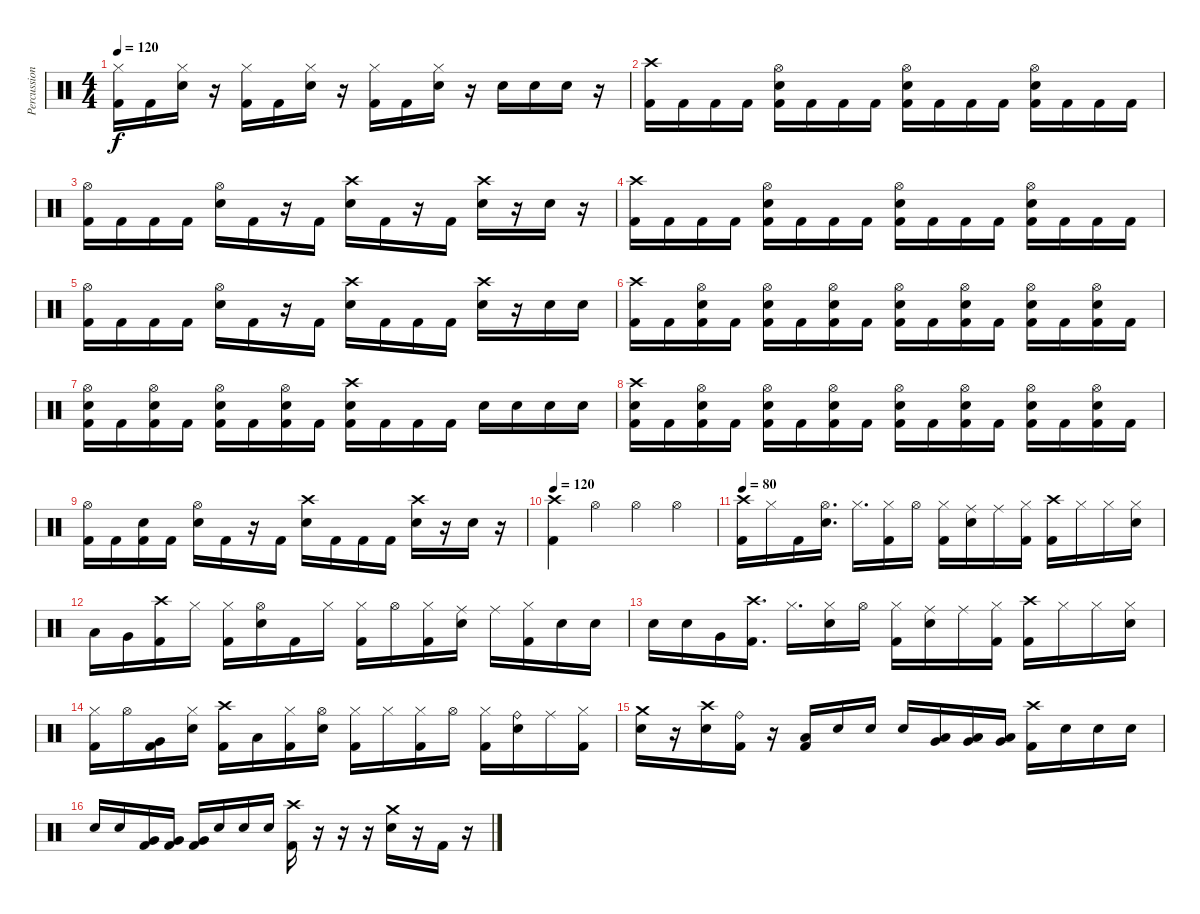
\track ("Percussion" "Percussion") {instrument percussion}
\staff {score}
\articulation defaults
\ts (4 4)
\tempo 120
\clef neutral
\ks c
("Kick (hit) 2" "Hi-Hat (closed)").16{dy f} "Kick (hit) 2".16 ("Snare (hit) 2" "Hi-Hat (closed)").16 r.16 ("Kick (hit) 2" "Hi-Hat (closed)").16 "Kick (hit) 2".16 ("Snare (hit) 2" "Hi-Hat (closed)").16 r.16 ("Kick (hit) 2" "Hi-Hat (closed)").16 "Kick (hit) 2".16 ("Snare (hit) 2" "Hi-Hat (closed)").16 r.16 "Snare (hit) 2".16 "Snare (hit) 2".16 "Snare (hit) 2".16 r.16 |
("Crash high (hit)" "Kick (hit) 2").16 "Kick (hit) 2".16 "Kick (hit) 2".16 "Kick (hit) 2".16 ("Hi-Hat (open)" "Snare (hit) 2" "Kick (hit) 2").16 "Kick (hit) 2".16 "Kick (hit) 2".16 "Kick (hit) 2".16 ("Hi-Hat (open)" "Snare (hit) 2" "Kick (hit) 2").16 "Kick (hit) 2".16 "Kick (hit) 2".16 "Kick (hit) 2".16 ("Hi-Hat (open)" "Snare (hit) 2" "Kick (hit) 2").16 "Kick (hit) 2".16 "Kick (hit) 2".16 "Kick (hit) 2".16 |
("Hi-Hat (open)" "Kick (hit) 2").16 "Kick (hit) 2".16 "Kick (hit) 2".16 "Kick (hit) 2".16 ("Hi-Hat (open)" "Snare (hit) 2").16 "Kick (hit) 2".16 r.16 "Kick (hit) 2".16 ("Crash high (hit)" "Snare (hit) 2").16 "Kick (hit) 2".16 r.16 "Kick (hit) 2".16 ("Crash high (hit)" "Snare (hit) 2").16 r.16 "Snare (hit) 2".16 r.16 |
("Crash high (hit)" "Kick (hit) 2").16 "Kick (hit) 2".16 "Kick (hit) 2".16 "Kick (hit) 2".16 ("Hi-Hat (open)" "Snare (hit) 2" "Kick (hit) 2").16 "Kick (hit) 2".16 "Kick (hit) 2".16 "Kick (hit) 2".16 ("Hi-Hat (open)" "Snare (hit) 2" "Kick (hit) 2").16 "Kick (hit) 2".16 "Kick (hit) 2".16 "Kick (hit) 2".16 ("Hi-Hat (open)" "Snare (hit) 2" "Kick (hit) 2").16 "Kick (hit) 2".16 "Kick (hit) 2".16 "Kick (hit) 2".16 |
("Hi-Hat (open)" "Kick (hit) 2").16 "Kick (hit) 2".16 "Kick (hit) 2".16 "Kick (hit) 2".16 ("Hi-Hat (open)" "Snare (hit) 2").16 "Kick (hit) 2".16 r.16 "Kick (hit) 2".16 ("Crash high (hit)" "Snare (hit) 2").16 "Kick (hit) 2".16 "Kick (hit) 2".16 "Kick (hit) 2".16 ("Crash high (hit)" "Snare (hit) 2").16 r.16 "Snare (hit) 2".16 "Snare (hit) 2".16 |
("Crash high (hit)" "Kick (hit) 2").16 "Kick (hit) 2".16 ("Hi-Hat (open)" "Snare (hit) 2" "Kick (hit) 2").16 "Kick (hit) 2".16 ("Hi-Hat (open)" "Snare (hit) 2" "Kick (hit) 2").16 "Kick (hit) 2".16 ("Hi-Hat (open)" "Snare (hit) 2" "Kick (hit) 2").16 "Kick (hit) 2".16 ("Hi-Hat (open)" "Snare (hit) 2" "Kick (hit) 2").16 "Kick (hit) 2".16 ("Hi-Hat (open)" "Snare (hit) 2" "Kick (hit) 2").16 "Kick (hit) 2".16 ("Hi-Hat (open)" "Snare (hit) 2" "Kick (hit) 2").16 "Kick (hit) 2".16 ("Hi-Hat (open)" "Snare (hit) 2" "Kick (hit) 2").16 "Kick (hit) 2".16 |
("Hi-Hat (open)" "Snare (hit) 2" "Kick (hit) 2").16 "Kick (hit) 2".16 ("Hi-Hat (open)" "Snare (hit) 2" "Kick (hit) 2").16 "Kick (hit) 2".16 ("Hi-Hat (open)" "Snare (hit) 2" "Kick (hit) 2").16 "Kick (hit) 2".16 ("Hi-Hat (open)" "Snare (hit) 2" "Kick (hit) 2").16 "Kick (hit) 2".16 ("Crash high (hit)" "Snare (hit) 2" "Kick (hit) 2").16 "Kick (hit) 2".16 "Kick (hit) 2".16 "Kick (hit) 2".16 "Snare (hit) 2".16 "Snare (hit) 2".16 "Snare (hit) 2".16 "Snare (hit) 2".16 |
("Crash high (hit)" "Snare (hit) 2" "Kick (hit) 2").16 "Kick (hit) 2".16 ("Hi-Hat (open)" "Snare (hit) 2" "Kick (hit) 2").16 "Kick (hit) 2".16 ("Hi-Hat (open)" "Snare (hit) 2" "Kick (hit) 2").16 "Kick (hit) 2".16 ("Hi-Hat (open)" "Snare (hit) 2" "Kick (hit) 2").16 "Kick (hit) 2".16 ("Hi-Hat (open)" "Snare (hit) 2" "Kick (hit) 2").16 "Kick (hit) 2".16 ("Hi-Hat (open)" "Snare (hit) 2" "Kick (hit) 2").16 "Kick (hit) 2".16 ("Hi-Hat (open)" "Snare (hit) 2" "Kick (hit) 2").16 "Kick (hit) 2".16 ("Hi-Hat (open)" "Snare (hit) 2" "Kick (hit) 2").16 "Kick (hit) 2".16 |
("Hi-Hat (open)" "Kick (hit) 2").16 "Kick (hit) 2".16 ("Snare (hit) 2" "Kick (hit) 2").16 "Kick (hit) 2".16 ("Hi-Hat (open)" "Snare (hit) 2").16 "Kick (hit) 2".16 r.16 "Kick (hit) 2".16 ("Crash high (hit)" "Snare (hit) 2").16 "Kick (hit) 2".16 "Kick (hit) 2".16 "Kick (hit) 2".16 ("Crash high (hit)" "Snare (hit) 2").16 r.16 "Snare (hit) 2".16 r.16 |
\tempo 120
("Crash high (hit)" "Kick (hit) 2").4 "Hi-Hat (open)".4 "Hi-Hat (open)".4 "Hi-Hat (open)".4 |
\tempo 80
("Crash high (hit)" "Kick (hit) 2").16 "Hi-Hat (closed)".16 "Kick (hit) 2".16 ("Hi-Hat (open)" "Snare (hit) 2").16{d} "Hi-Hat (closed)".16{d} ("Hi-Hat (closed)" "Kick (hit) 2").16 "Hi-Hat (open)".16 ("Hi-Hat (closed)" "Kick (hit) 2").16 ("Ride (middle)" "Snare (hit) 2").16 "Ride (middle)".16 ("Hi-Hat (closed)" "Kick (hit) 2").16 ("Crash high (hit)" "Kick (hit) 2").16 "Hi-Hat (closed)".16 "Hi-Hat (closed)".16 ("Hi-Hat (closed)" "Snare (hit) 2").16 |
"Low Tom (hit)".16 "Very Low Tom (hit)".16 ("Crash high (hit)" "Kick (hit) 2").16 "Hi-Hat (closed)".16 ("Hi-Hat (closed)" "Kick (hit) 2").16 ("Hi-Hat (open)" "Snare (hit) 2").16 "Kick (hit) 2".16 "Hi-Hat (closed)".16 ("Hi-Hat (closed)" "Kick (hit) 2").16 "Hi-Hat (open)".16 ("Hi-Hat (closed)" "Kick (hit) 2").16 ("Ride (middle)" "Snare (hit) 2").16 "Ride (middle)".16 ("Hi-Hat (closed)" "Kick (hit) 2").16 "Snare (hit) 2".16 "Snare (hit) 2".16 |
"Snare (hit) 2".16 "Snare (hit) 2".16 "Very Low Tom (hit)".16 ("Crash high (hit)" "Kick (hit) 2").16{d} "Hi-Hat (closed)".16{d} ("Hi-Hat (closed)" "Snare (hit) 2").16 "Hi-Hat (open)".16 ("Hi-Hat (closed)" "Kick (hit) 2").16 ("Ride (middle)" "Snare (hit) 2").16 "Ride (middle)".16 ("Hi-Hat (closed)" "Kick (hit) 2").16 ("Crash high (hit)" "Kick (hit) 2").16 "Hi-Hat (closed)".16 "Hi-Hat (closed)".16 ("Hi-Hat (closed)" "Snare (hit) 2").16 |
("Hi-Hat (closed)" "Kick (hit) 2").16 "Hi-Hat (open)".16 ("Very Low Tom (hit)" "Kick (hit) 2").16 ("Hi-Hat (closed)" "Snare (hit) 2").16 ("Crash high (hit)" "Kick (hit) 2").16 "Low Floor Tom (hit)".16 ("Hi-Hat (closed)" "Kick (hit) 2").16 ("Hi-Hat (open)" "Snare (hit) 2").16 ("Hi-Hat (closed)" "Kick (hit) 2").16 "Hi-Hat (closed)".16 ("Hi-Hat (closed)" "Kick (hit) 2").16 "Hi-Hat (open)".16 ("Hi-Hat (closed)" "Kick (hit) 2").16 ("Ride (bell)" "Snare (hit) 2").16 "Ride (middle)".16 ("Hi-Hat (closed)" "Kick (hit) 2").16 |
("Crash medium (hit)" "Snare (hit) 2").16 r.16 ("Crash high (hit)" "Snare (hit) 2").16 ("Ride (bell)" "Kick (hit) 2").16 r.16 ("Low Floor Tom (hit)" "Kick (hit) 2").16 "Snare (hit) 2".16 "Snare (hit) 2".16 "Snare (hit) 2".16 ("Very Low Tom (hit)" "Low Floor Tom (hit)").16 ("Very Low Tom (hit)" "Low Floor Tom (hit)").16 ("Very Low Tom (hit)" "Low Floor Tom (hit)").16 ("Crash high (hit)" "Kick (hit) 2").16 "Snare (hit) 2".16 "Snare (hit) 2".16 "Snare (hit) 2".16 |
"Snare (hit) 2".16 "Snare (hit) 2".16 ("Very Low Tom (hit)" "Kick (hit) 2").16 ("Very Low Tom (hit)" "Kick (hit) 2").16 ("Very Low Tom (hit)" "Kick (hit) 2").16 "Snare (hit) 2".16 "Snare (hit) 2".16 "Snare (hit) 2".16 ("Crash high (hit)" "Kick (hit) 2").16 r.16 r.16 r.16 ("Crash medium (hit)" "Snare (hit) 2").16 r.16 "Kick (hit) 2".16 r.16
